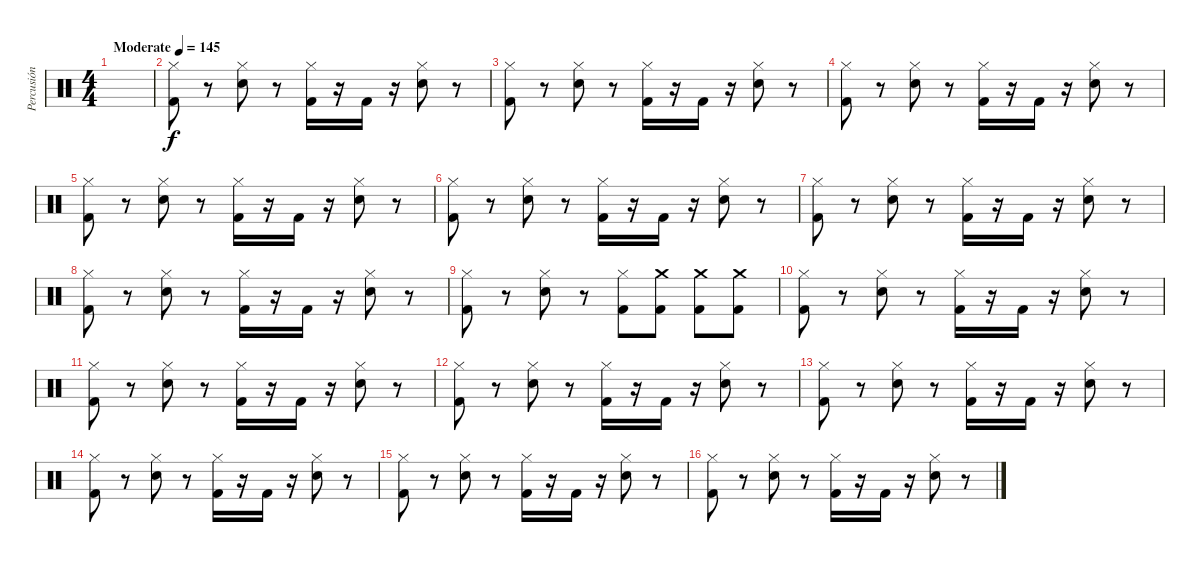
\track ("Percusión" "Percusión") {solo instrument percussion}
\staff {score}
\articulation defaults
\ts (4 4)
\tempo (145 "Moderate")
\clef neutral
\ks c
|
("Kick (hit) 2" "Hi-Hat (closed)").8 r.8 ("Electric Snare (hit)" "Hi-Hat (closed)").8 r.8 ("Kick (hit) 2" "Hi-Hat (closed)").16 r.16 "Kick (hit) 2".16 r.16 ("Electric Snare (hit)" "Hi-Hat (closed)").8 r.8 |
("Kick (hit) 2" "Hi-Hat (closed)").8 r.8 ("Electric Snare (hit)" "Hi-Hat (closed)").8 r.8 ("Kick (hit) 2" "Hi-Hat (closed)").16 r.16 "Kick (hit) 2".16 r.16 ("Electric Snare (hit)" "Hi-Hat (closed)").8 r.8 |
("Kick (hit) 2" "Hi-Hat (closed)").8 r.8 ("Electric Snare (hit)" "Hi-Hat (closed)").8 r.8 ("Kick (hit) 2" "Hi-Hat (closed)").16 r.16 "Kick (hit) 2".16 r.16 ("Electric Snare (hit)" "Hi-Hat (closed)").8 r.8 |
("Kick (hit) 2" "Hi-Hat (closed)").8 r.8 ("Electric Snare (hit)" "Hi-Hat (closed)").8 r.8 ("Kick (hit) 2" "Hi-Hat (closed)").16 r.16 "Kick (hit) 2".16 r.16 ("Electric Snare (hit)" "Hi-Hat (closed)").8 r.8 |
("Kick (hit) 2" "Hi-Hat (closed)").8 r.8 ("Electric Snare (hit)" "Hi-Hat (closed)").8 r.8 ("Kick (hit) 2" "Hi-Hat (closed)").16 r.16 "Kick (hit) 2".16 r.16 ("Electric Snare (hit)" "Hi-Hat (closed)").8 r.8 |
("Kick (hit) 2" "Hi-Hat (closed)").8 r.8 ("Electric Snare (hit)" "Hi-Hat (closed)").8 r.8 ("Kick (hit) 2" "Hi-Hat (closed)").16 r.16 "Kick (hit) 2".16 r.16 ("Electric Snare (hit)" "Hi-Hat (closed)").8 r.8 |
("Kick (hit) 2" "Hi-Hat (closed)").8 r.8 ("Electric Snare (hit)" "Hi-Hat (closed)").8 r.8 ("Kick (hit) 2" "Hi-Hat (closed)").16 r.16 "Kick (hit) 2".16 r.16 ("Electric Snare (hit)" "Hi-Hat (closed)").8 r.8 |
("Kick (hit) 2" "Hi-Hat (closed)").8 r.8 ("Electric Snare (hit)" "Hi-Hat (closed)").8 r.8 ("Kick (hit) 2" "Hi-Hat (closed)").8 ("Kick (hit) 2" "Crash medium (hit)").8 ("Kick (hit) 2" "Crash medium (hit)").8 ("Kick (hit) 2" "Crash medium (hit)").8 |
("Kick (hit) 2" "Hi-Hat (closed)").8 r.8 ("Electric Snare (hit)" "Hi-Hat (closed)").8 r.8 ("Kick (hit) 2" "Hi-Hat (closed)").16 r.16 "Kick (hit) 2".16 r.16 ("Electric Snare (hit)" "Hi-Hat (closed)").8 r.8 |
("Kick (hit) 2" "Hi-Hat (closed)").8 r.8 ("Electric Snare (hit)" "Hi-Hat (closed)").8 r.8 ("Kick (hit) 2" "Hi-Hat (closed)").16 r.16 "Kick (hit) 2".16 r.16 ("Electric Snare (hit)" "Hi-Hat (closed)").8 r.8 |
("Kick (hit) 2" "Hi-Hat (closed)").8 r.8 ("Electric Snare (hit)" "Hi-Hat (closed)").8 r.8 ("Kick (hit) 2" "Hi-Hat (closed)").16 r.16 "Kick (hit) 2".16 r.16 ("Electric Snare (hit)" "Hi-Hat (closed)").8 r.8 |
("Kick (hit) 2" "Hi-Hat (closed)").8 r.8 ("Electric Snare (hit)" "Hi-Hat (closed)").8 r.8 ("Kick (hit) 2" "Hi-Hat (closed)").16 r.16 "Kick (hit) 2".16 r.16 ("Electric Snare (hit)" "Hi-Hat (closed)").8 r.8 |
("Kick (hit) 2" "Hi-Hat (closed)").8 r.8 ("Electric Snare (hit)" "Hi-Hat (closed)").8 r.8 ("Kick (hit) 2" "Hi-Hat (closed)").16 r.16 "Kick (hit) 2".16 r.16 ("Electric Snare (hit)" "Hi-Hat (closed)").8 r.8 |
("Kick (hit) 2" "Hi-Hat (closed)").8 r.8 ("Electric Snare (hit)" "Hi-Hat (closed)").8 r.8 ("Kick (hit) 2" "Hi-Hat (closed)").16 r.16 "Kick (hit) 2".16 r.16 ("Electric Snare (hit)" "Hi-Hat (closed)").8 r.8 |
("Kick (hit) 2" "Hi-Hat (closed)").8 r.8 ("Electric Snare (hit)" "Hi-Hat (closed)").8 r.8 ("Kick (hit) 2" "Hi-Hat (closed)").16 r.16 "Kick (hit) 2".16 r.16 ("Electric Snare (hit)" "Hi-Hat (closed)").8 r.8
